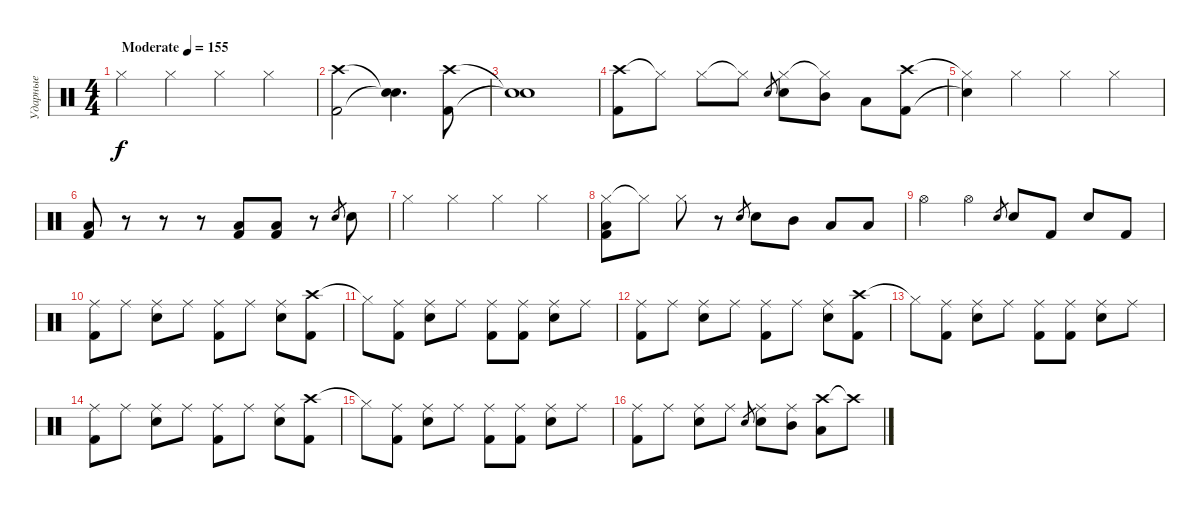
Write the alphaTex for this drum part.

\track ("Ударные" "Ударные") {solo instrument percussion}
\staff {score}
\articulation defaults
\ts (4 4)
\tempo (155 "Moderate")
\clef neutral
\ks c "Hi-Hat (closed)".4{dy f} "Hi-Hat (closed)".4 "Hi-Hat (closed)".4 "Hi-Hat (closed)".4
|
("Kick (hit) 2" "Crash high (hit)").2 ("Snare (hit)"{t} "Snare (hit)"{t}).4{d} ("Kick (hit) 2" "Crash high (hit)").8 |
("Snare (hit)"{t} "Snare (hit)"{t}).1 |
("Crash high (hit)" "Kick (hit) 2").8 "Hi-Hat (closed)"{t}.8 "Hi-Hat (closed)".8 "Hi-Hat (closed)"{t}.8 "Electric Snare (hit)".8{gr} ("Hi-Hat (closed)" "Electric Snare (hit)").8 ("Hi-Hat (closed)"{t} "Mid Tom (hit)").8 "Low Tom (hit)".8 ("Crash high (hit)" "Kick (hit) 2").8 |
("Hi-Hat (closed)"{t} "Snare (hit)"{t}).4 "Hi-Hat (closed)".4 "Hi-Hat (closed)".4 "Hi-Hat (closed)".4 |
("Low Tom (hit)" "Kick (hit) 2").8 r.8 r.8 r.8 ("Kick (hit) 2" "Low Tom (hit)").8 ("Kick (hit) 2" "Low Tom (hit)").8 r.8 "Electric Snare (hit)".8{gr} "Electric Snare (hit)".8 |
"Hi-Hat (closed)".4 "Hi-Hat (closed)".4 "Hi-Hat (closed)".4 "Hi-Hat (closed)".4 |
("Hi-Hat (closed)" "Low Tom (hit)" "Kick (hit) 2").8 "Hi-Hat (closed)"{t}.8 "Hi-Hat (closed)".8 r.8 "Electric Snare (hit)".8{gr} "Electric Snare (hit)".8 "Mid Tom (hit)".8 "Low Tom (hit)".8 "Low Tom (hit)".8 |
"Hi-Hat (open)".4 "Hi-Hat (open)".4 "Electric Snare (hit)".8{gr} "Electric Snare (hit)".8 "Kick (hit) 2".8 "Electric Snare (hit)".8 "Kick (hit) 2".8 |
("Ride (middle)" "Kick (hit) 2").8 "Ride (middle)".8 ("Ride (middle)" "Electric Snare (hit)").8 "Ride (middle)".8 ("Ride (middle)" "Kick (hit) 2").8 "Ride (middle)".8 ("Ride (middle)" "Electric Snare (hit)").8 ("Crash high (hit)" "Kick (hit) 2").8 |
"Hi-Hat (closed)"{t}.8 ("Ride (middle)" "Kick (hit) 2").8 ("Ride (middle)" "Electric Snare (hit)").8 "Ride (middle)".8 ("Ride (middle)" "Kick (hit) 2").8 ("Ride (middle)" "Kick (hit) 2").8 ("Ride (middle)" "Electric Snare (hit)").8 "Ride (middle)".8 |
("Ride (middle)" "Kick (hit) 2").8 "Ride (middle)".8 ("Ride (middle)" "Electric Snare (hit)").8 "Ride (middle)".8 ("Ride (middle)" "Kick (hit) 2").8 "Ride (middle)".8 ("Ride (middle)" "Electric Snare (hit)").8 ("Crash high (hit)" "Kick (hit) 2").8 |
"Hi-Hat (closed)"{t}.8 ("Ride (middle)" "Kick (hit) 2").8 ("Ride (middle)" "Electric Snare (hit)").8 "Ride (middle)".8 ("Ride (middle)" "Kick (hit) 2").8 ("Ride (middle)" "Kick (hit) 2").8 ("Ride (middle)" "Electric Snare (hit)").8 "Ride (middle)".8 |
("Ride (middle)" "Kick (hit) 2").8 "Ride (middle)".8 ("Ride (middle)" "Electric Snare (hit)").8 "Ride (middle)".8 ("Ride (middle)" "Kick (hit) 2").8 "Ride (middle)".8 ("Ride (middle)" "Electric Snare (hit)").8 ("Crash high (hit)" "Kick (hit) 2").8 |
"Hi-Hat (closed)"{t}.8 ("Ride (middle)" "Kick (hit) 2").8 ("Ride (middle)" "Electric Snare (hit)").8 "Ride (middle)".8 ("Ride (middle)" "Kick (hit) 2").8 ("Ride (middle)" "Kick (hit) 2").8 ("Ride (middle)" "Electric Snare (hit)").8 "Ride (middle)".8 |
("Ride (middle)" "Kick (hit) 2").8 "Ride (middle)".8 ("Ride (middle)" "Electric Snare (hit)").8 "Ride (middle)".8 "Electric Snare (hit)".8{gr} ("Ride (middle)" "Electric Snare (hit)").8 ("Ride (middle)" "Mid Tom (hit)").8 ("Crash high (hit)" "Low Tom (hit)").8 "Crash high (hit)"{t}.8
